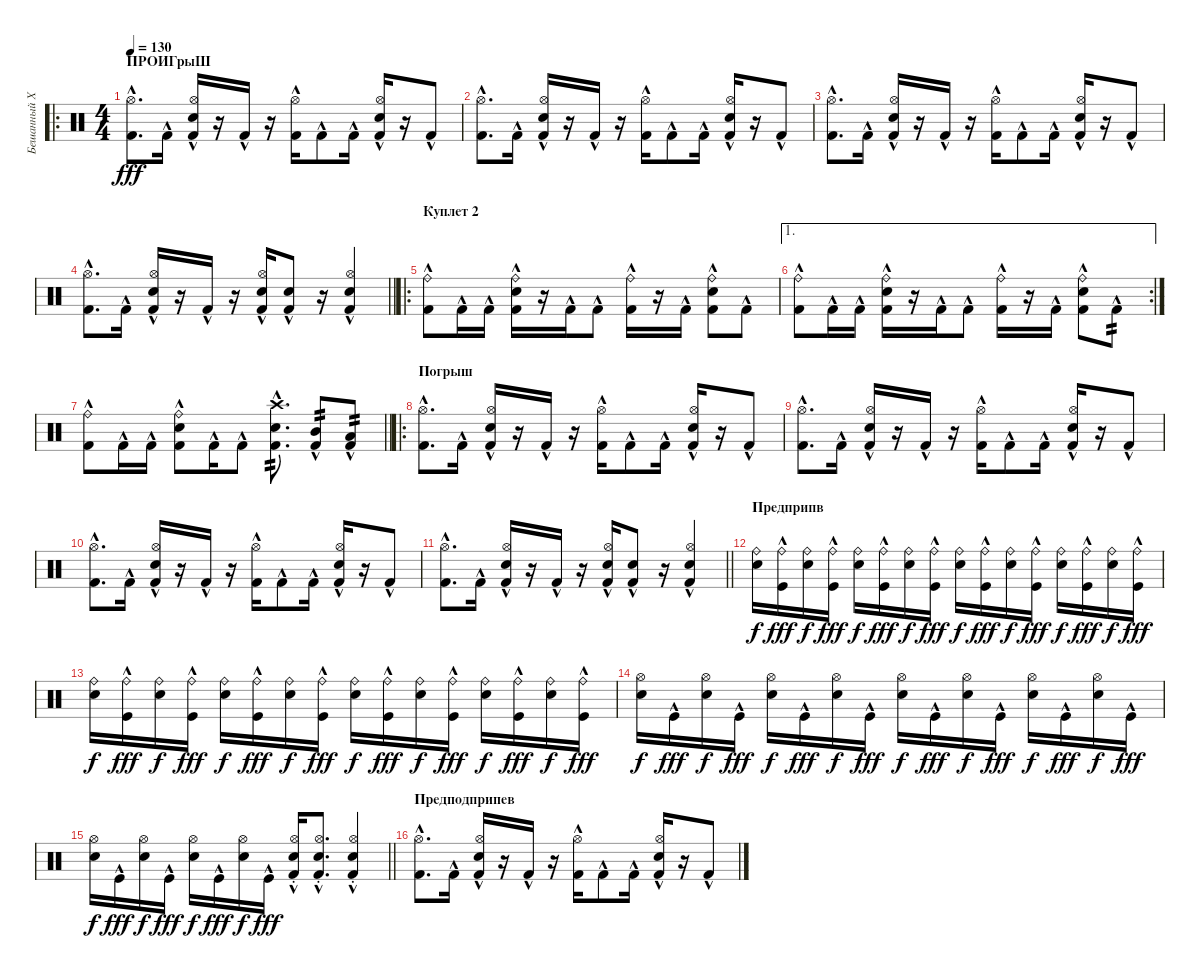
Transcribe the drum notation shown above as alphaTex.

\track ("Бешанный Харек" "Бешанный Х") {instrument percussion}
\staff {score}
\articulation defaults
\ro
\ts (4 4)
\section ("" "ПРОИГрыШ")
\tempo 130
\clef neutral
\ks c
("Kick (hit) 2"{hac} "Hi-Hat (open)").8{d dy fff} "Kick (hit) 2"{hac}.16 ("Kick (hit) 2"{hac} "Snare (hit) 2" "Hi-Hat (open)").16 r.16 "Kick (hit) 2"{hac}.16 r.16 ("Kick (hit) 2"{hac} "Hi-Hat (open)").16 "Kick (hit) 2"{hac}.8 "Kick (hit) 2"{hac}.16 ("Kick (hit) 2"{hac} "Snare (hit) 2" "Hi-Hat (open)").16 r.16 "Kick (hit) 2"{hac}.8 |
("Kick (hit) 2"{hac} "Hi-Hat (open)").8{d} "Kick (hit) 2"{hac}.16 ("Kick (hit) 2"{hac} "Snare (hit) 2" "Hi-Hat (open)").16 r.16 "Kick (hit) 2"{hac}.16 r.16 ("Kick (hit) 2"{hac} "Hi-Hat (open)").16 "Kick (hit) 2"{hac}.8 "Kick (hit) 2"{hac}.16 ("Kick (hit) 2"{hac} "Snare (hit) 2" "Hi-Hat (open)").16 r.16 "Kick (hit) 2"{hac}.8 |
("Kick (hit) 2"{hac} "Hi-Hat (open)").8{d} "Kick (hit) 2"{hac}.16 ("Kick (hit) 2"{hac} "Snare (hit) 2" "Hi-Hat (open)").16 r.16 "Kick (hit) 2"{hac}.16 r.16 ("Kick (hit) 2"{hac} "Hi-Hat (open)").16 "Kick (hit) 2"{hac}.8 "Kick (hit) 2"{hac}.16 ("Kick (hit) 2"{hac} "Snare (hit) 2" "Hi-Hat (open)").16 r.16 "Kick (hit) 2"{hac}.8 |
\barLineRight lightlight
("Kick (hit) 2"{hac} "Hi-Hat (open)").8{d} "Kick (hit) 2"{hac}.16 ("Kick (hit) 2"{hac} "Snare (hit) 2" "Hi-Hat (open)").16 r.16 "Kick (hit) 2"{hac}.16 r.16 ("Kick (hit) 2"{hac} "Snare (hit) 2" "Hi-Hat (open)").16 ("Kick (hit) 2"{hac} "Snare (hit) 2").8 r.16 ("Kick (hit) 2"{hac} "Snare (hit) 2" "Hi-Hat (open)").4 |
\ro
\section ("" "Куплет 2")
("Kick (hit) 2"{hac} "Ride (bell)").8 "Kick (hit) 2"{hac}.16 "Kick (hit) 2"{hac}.16 ("Kick (hit) 2"{hac} "Snare (hit) 2" "Ride (bell)").16 r.16 "Kick (hit) 2"{hac}.16 "Kick (hit) 2"{hac}.8 ("Kick (hit) 2"{hac} "Ride (bell)").16 r.16 "Kick (hit) 2"{hac}.16 ("Kick (hit) 2"{hac} "Snare (hit) 2" "Ride (bell)").8 "Kick (hit) 2"{hac}.8 |
\ae 1
\rc 2
("Kick (hit) 2"{hac} "Ride (bell)").8 "Kick (hit) 2"{hac}.16 "Kick (hit) 2"{hac}.16 ("Kick (hit) 2"{hac} "Snare (hit) 2" "Ride (bell)").16 r.16 "Kick (hit) 2"{hac}.16 "Kick (hit) 2"{hac}.8 ("Kick (hit) 2"{hac} "Ride (bell)").16 r.16 "Kick (hit) 2"{hac}.16 ("Kick (hit) 2"{hac} "Snare (hit) 2" "Ride (bell)").8 "Kick (hit) 2"{hac}.8{tp 2} |
\barLineRight lightlight
("Kick (hit) 2"{hac} "Ride (bell)").8 "Kick (hit) 2"{hac}.16 "Kick (hit) 2"{hac}.16 ("Kick (hit) 2"{hac} "Snare (hit) 2" "Ride (bell)").8 "Kick (hit) 2"{hac}.16 "Kick (hit) 2"{hac}.8 ("Kick (hit) 2"{hac} "Snare (hit) 2" "Crash high (hit)").8{d tp 2} ("Kick (hit) 2"{hac} "Mid Tom (hit)").8{tp 2} ("Kick (hit) 2"{hac} "Low Tom (hit)").8{tp 2} |
\ro
\section ("" "Погрыш")
("Kick (hit) 2"{hac} "Hi-Hat (open)").8{d} "Kick (hit) 2"{hac}.16 ("Kick (hit) 2"{hac} "Snare (hit) 2" "Hi-Hat (open)").16 r.16 "Kick (hit) 2"{hac}.16 r.16 ("Kick (hit) 2"{hac} "Hi-Hat (open)").16 "Kick (hit) 2"{hac}.8 "Kick (hit) 2"{hac}.16 ("Kick (hit) 2"{hac} "Snare (hit) 2" "Hi-Hat (open)").16 r.16 "Kick (hit) 2"{hac}.8 |
("Kick (hit) 2"{hac} "Hi-Hat (open)").8{d} "Kick (hit) 2"{hac}.16 ("Kick (hit) 2"{hac} "Snare (hit) 2" "Hi-Hat (open)").16 r.16 "Kick (hit) 2"{hac}.16 r.16 ("Kick (hit) 2"{hac} "Hi-Hat (open)").16 "Kick (hit) 2"{hac}.8 "Kick (hit) 2"{hac}.16 ("Kick (hit) 2"{hac} "Snare (hit) 2" "Hi-Hat (open)").16 r.16 "Kick (hit) 2"{hac}.8 |
("Kick (hit) 2"{hac} "Hi-Hat (open)").8{d} "Kick (hit) 2"{hac}.16 ("Kick (hit) 2"{hac} "Snare (hit) 2" "Hi-Hat (open)").16 r.16 "Kick (hit) 2"{hac}.16 r.16 ("Kick (hit) 2"{hac} "Hi-Hat (open)").16 "Kick (hit) 2"{hac}.8 "Kick (hit) 2"{hac}.16 ("Kick (hit) 2"{hac} "Snare (hit) 2" "Hi-Hat (open)").16 r.16 "Kick (hit) 2"{hac}.8 |
\barLineRight lightlight
("Kick (hit) 2"{hac} "Hi-Hat (open)").8{d} "Kick (hit) 2"{hac}.16 ("Kick (hit) 2"{hac} "Snare (hit) 2" "Hi-Hat (open)").16 r.16 "Kick (hit) 2"{hac}.16 r.16 ("Kick (hit) 2"{hac} "Snare (hit) 2" "Hi-Hat (open)").16 ("Kick (hit) 2"{hac} "Snare (hit) 2").8 r.16 ("Kick (hit) 2"{hac} "Snare (hit) 2" "Hi-Hat (open)").4 |
\section ("" "Предприпв")
("Ride (bell)" "Snare (hit) 2").16{dy f} ("Ride (bell)" "Kick (hit)"{hac}).16{dy fff} ("Ride (bell)" "Snare (hit) 2").16{dy f} ("Ride (bell)" "Kick (hit)"{hac}).16{dy fff} ("Ride (bell)" "Snare (hit) 2").16{dy f} ("Ride (bell)" "Kick (hit)"{hac}).16{dy fff} ("Ride (bell)" "Snare (hit) 2").16{dy f} ("Ride (bell)" "Kick (hit)"{hac}).16{dy fff} ("Ride (bell)" "Snare (hit) 2").16{dy f} ("Ride (bell)" "Kick (hit)"{hac}).16{dy fff} ("Ride (bell)" "Snare (hit) 2").16{dy f} ("Ride (bell)" "Kick (hit)"{hac}).16{dy fff} ("Ride (bell)" "Snare (hit) 2").16{dy f} ("Ride (bell)" "Kick (hit)"{hac}).16{dy fff} ("Ride (bell)" "Snare (hit) 2").16{dy f} ("Ride (bell)" "Kick (hit)"{hac}).16{dy fff} |
("Ride (bell)" "Snare (hit) 2").16{dy f} ("Ride (bell)" "Kick (hit)"{hac}).16{dy fff} ("Ride (bell)" "Snare (hit) 2").16{dy f} ("Ride (bell)" "Kick (hit)"{hac}).16{dy fff} ("Ride (bell)" "Snare (hit) 2").16{dy f} ("Ride (bell)" "Kick (hit)"{hac}).16{dy fff} ("Ride (bell)" "Snare (hit) 2").16{dy f} ("Ride (bell)" "Kick (hit)"{hac}).16{dy fff} ("Ride (bell)" "Snare (hit) 2").16{dy f} ("Ride (bell)" "Kick (hit)"{hac}).16{dy fff} ("Ride (bell)" "Snare (hit) 2").16{dy f} ("Ride (bell)" "Kick (hit)"{hac}).16{dy fff} ("Ride (bell)" "Snare (hit) 2").16{dy f} ("Ride (bell)" "Kick (hit)"{hac}).16{dy fff} ("Ride (bell)" "Snare (hit) 2").16{dy f} ("Ride (bell)" "Kick (hit)"{hac}).16{dy fff} |
("Hi-Hat (open)" "Snare (hit) 2").16{dy f} "Kick (hit)"{hac}.16{dy fff} ("Hi-Hat (open)" "Snare (hit) 2").16{dy f} "Kick (hit)"{hac}.16{dy fff} ("Hi-Hat (open)" "Snare (hit) 2").16{dy f} "Kick (hit)"{hac}.16{dy fff} ("Hi-Hat (open)" "Snare (hit) 2").16{dy f} "Kick (hit)"{hac}.16{dy fff} ("Hi-Hat (open)" "Snare (hit) 2").16{dy f} "Kick (hit)"{hac}.16{dy fff} ("Hi-Hat (open)" "Snare (hit) 2").16{dy f} "Kick (hit)"{hac}.16{dy fff} ("Hi-Hat (open)" "Snare (hit) 2").16{dy f} "Kick (hit)"{hac}.16{dy fff} ("Hi-Hat (open)" "Snare (hit) 2").16{dy f} "Kick (hit)"{hac}.16{dy fff} |
\barLineRight lightlight
("Hi-Hat (open)" "Snare (hit) 2").16{dy f} "Kick (hit)"{hac}.16{dy fff} ("Hi-Hat (open)" "Snare (hit) 2").16{dy f} "Kick (hit)"{hac}.16{dy fff} ("Hi-Hat (open)" "Snare (hit) 2").16{dy f} "Kick (hit)"{hac}.16{dy fff} ("Hi-Hat (open)" "Snare (hit) 2").16{dy f} "Kick (hit)"{hac}.16{dy fff} ("Hi-Hat (open)"{st} "Kick (hit) 2"{hac st} "Snare (hit) 2"{st}).16 ("Hi-Hat (open)"{st} "Kick (hit) 2"{hac st} "Snare (hit) 2"{st}).8{d} ("Hi-Hat (open)"{st} "Kick (hit) 2"{hac st} "Snare (hit) 2"{st}).4 |
\section ("" "Предподприпев")
("Kick (hit) 2"{hac} "Hi-Hat (open)").8{d} "Kick (hit) 2"{hac}.16 ("Kick (hit) 2"{hac} "Snare (hit) 2" "Hi-Hat (open)").16 r.16 "Kick (hit) 2"{hac}.16 r.16 ("Kick (hit) 2"{hac} "Hi-Hat (open)").16 "Kick (hit) 2"{hac}.8 "Kick (hit) 2"{hac}.16 ("Kick (hit) 2"{hac} "Snare (hit) 2" "Hi-Hat (open)").16 r.16 "Kick (hit) 2"{hac}.8
